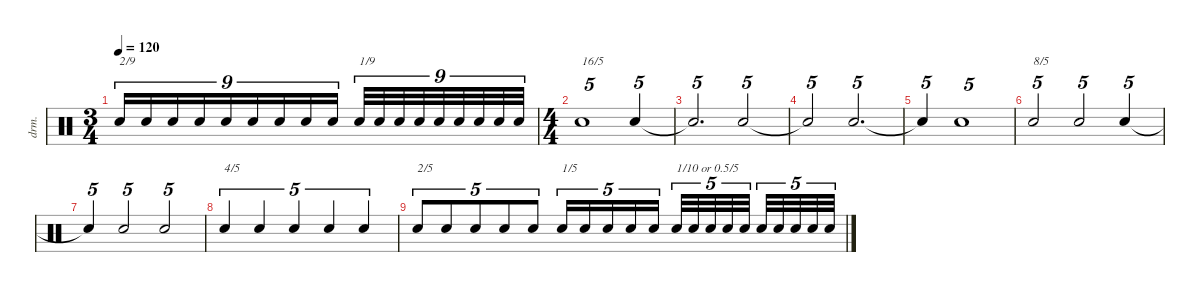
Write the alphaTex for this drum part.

\defaultSystemsLayout 4
\hideDynamics
\bracketExtendMode nobrackets
\otherSystemsTrackNameOrientation horizontal
\track ("Drumkit" "drm.") {instrument percussion}
\staff {score}
\articulation defaults
\ts (3 4)
\beaming (8 2 2 2)
\tempo 120
\clef neutral
\ks c "Snare (hit) 2".16{tu (9 8) txt "2/9" dy mf beam Up} "Snare (hit) 2".16{tu (9 8) beam Up} "Snare (hit) 2".16{tu (9 8) beam Up} "Snare (hit) 2".16{tu (9 8) beam Up} "Snare (hit) 2".16{tu (9 8) beam Up} "Snare (hit) 2".16{tu (9 8) beam Up} "Snare (hit) 2".16{tu (9 8) beam Up} "Snare (hit) 2".16{tu (9 8) beam Up} "Snare (hit) 2".16{tu (9 8) beam Up} "Snare (hit) 2".32{tu (9 8) txt "1/9" beam Up} "Snare (hit) 2".32{tu (9 8) beam Up} "Snare (hit) 2".32{tu (9 8) beam Up} "Snare (hit) 2".32{tu (9 8) beam Up} "Snare (hit) 2".32{tu (9 8) beam Up} "Snare (hit) 2".32{tu (9 8) beam Up} "Snare (hit) 2".32{tu (9 8) beam Up} "Snare (hit) 2".32{tu (9 8) beam Up} "Snare (hit) 2".32{tu (9 8) beam Up}
|
\ts (4 4)
\beaming (8 2 2 2 2)
"Snare (hit) 2".1{tu (5 4) txt "16/5" beam Up} "Snare (hit) 2".4{tu (5 4) beam Up} |
"Snare (hit) 2"{t}.2{d tu (5 4) beam Up} "Snare (hit) 2".2{tu (5 4) beam Up} |
"Snare (hit) 2"{t}.2{tu (5 4) beam Up} "Snare (hit) 2".2{d tu (5 4) beam Up} |
"Snare (hit) 2"{t}.4{tu (5 4) beam Up} "Snare (hit) 2".1{tu (5 4) beam Up} |
"Snare (hit) 2".2{tu (5 4) txt "8/5" beam Up} "Snare (hit) 2".2{tu (5 4) beam Up} "Snare (hit) 2".4{tu (5 4) beam Up} |
"Snare (hit) 2"{t}.4{tu (5 4) beam Up} "Snare (hit) 2".2{tu (5 4) beam Up} "Snare (hit) 2".2{tu (5 4) beam Up} |
"Snare (hit) 2".4{tu (5 4) txt "4/5" beam Up} "Snare (hit) 2".4{tu (5 4) beam Up} "Snare (hit) 2".4{tu (5 4) beam Up} "Snare (hit) 2".4{tu (5 4) beam Up} "Snare (hit) 2".4{tu (5 4) beam Up} |
"Snare (hit) 2".8{tu (5 4) txt "2/5" beam Up} "Snare (hit) 2".8{tu (5 4) beam Up} "Snare (hit) 2".8{tu (5 4) beam Up} "Snare (hit) 2".8{tu (5 4) beam Up} "Snare (hit) 2".8{tu (5 4) beam Up} "Snare (hit) 2".16{tu (5 4) txt "1/5" beam Up} "Snare (hit) 2".16{tu (5 4) beam Up} "Snare (hit) 2".16{tu (5 4) beam Up} "Snare (hit) 2".16{tu (5 4) beam Up} "Snare (hit) 2".16{tu (5 4) beam Up} "Snare (hit) 2".32{tu (5 4) txt "1/10 or 0.5/5" beam Up} "Snare (hit) 2".32{tu (5 4) beam Up} "Snare (hit) 2".32{tu (5 4) beam Up} "Snare (hit) 2".32{tu (5 4) beam Up} "Snare (hit) 2".32{tu (5 4) beam Up} "Snare (hit) 2".32{tu (5 4) beam Up} "Snare (hit) 2".32{tu (5 4) beam Up} "Snare (hit) 2".32{tu (5 4) beam Up} "Snare (hit) 2".32{tu (5 4) beam Up} "Snare (hit) 2".32{tu (5 4) beam Up}
